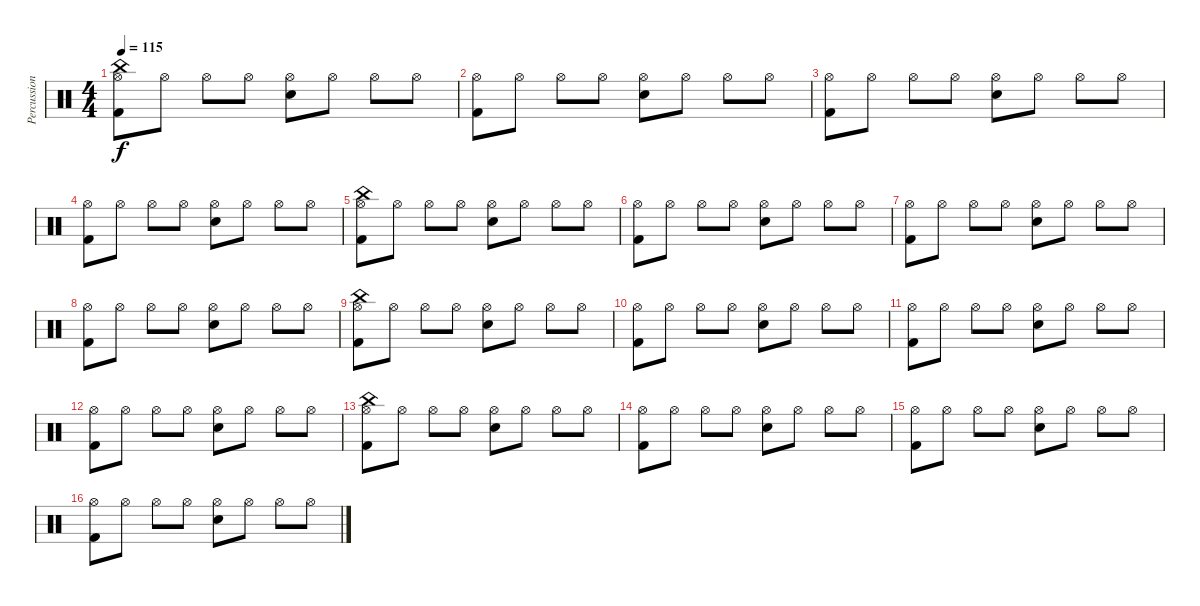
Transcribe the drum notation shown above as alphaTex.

\track ("Percussion" "Percussion") {instrument percussion}
\staff {score}
\articulation defaults
\ts (4 4)
\tempo 115
\clef neutral
\ks c
("China (hit)" "Hi-Hat (open)" "Kick (hit) 2").8{dy f} "Hi-Hat (open)".8 "Hi-Hat (open)".8 "Hi-Hat (open)".8 ("Hi-Hat (open)" "Snare (hit) 2").8 "Hi-Hat (open)".8 "Hi-Hat (open)".8 "Hi-Hat (open)".8 |
("Hi-Hat (open)" "Kick (hit) 2").8 "Hi-Hat (open)".8 "Hi-Hat (open)".8 "Hi-Hat (open)".8 ("Hi-Hat (open)" "Snare (hit) 2").8 "Hi-Hat (open)".8 "Hi-Hat (open)".8 "Hi-Hat (open)".8 |
("Hi-Hat (open)" "Kick (hit) 2").8 "Hi-Hat (open)".8 "Hi-Hat (open)".8 "Hi-Hat (open)".8 ("Hi-Hat (open)" "Snare (hit) 2").8 "Hi-Hat (open)".8 "Hi-Hat (open)".8 "Hi-Hat (open)".8 |
("Hi-Hat (open)" "Kick (hit) 2").8 "Hi-Hat (open)".8 "Hi-Hat (open)".8 "Hi-Hat (open)".8 ("Hi-Hat (open)" "Snare (hit) 2").8 "Hi-Hat (open)".8 "Hi-Hat (open)".8 "Hi-Hat (open)".8 |
("China (hit)" "Hi-Hat (open)" "Kick (hit) 2").8 "Hi-Hat (open)".8 "Hi-Hat (open)".8 "Hi-Hat (open)".8 ("Hi-Hat (open)" "Snare (hit) 2").8 "Hi-Hat (open)".8 "Hi-Hat (open)".8 "Hi-Hat (open)".8 |
("Hi-Hat (open)" "Kick (hit) 2").8 "Hi-Hat (open)".8 "Hi-Hat (open)".8 "Hi-Hat (open)".8 ("Hi-Hat (open)" "Snare (hit) 2").8 "Hi-Hat (open)".8 "Hi-Hat (open)".8 "Hi-Hat (open)".8 |
("Hi-Hat (open)" "Kick (hit) 2").8 "Hi-Hat (open)".8 "Hi-Hat (open)".8 "Hi-Hat (open)".8 ("Hi-Hat (open)" "Snare (hit) 2").8 "Hi-Hat (open)".8 "Hi-Hat (open)".8 "Hi-Hat (open)".8 |
("Hi-Hat (open)" "Kick (hit) 2").8 "Hi-Hat (open)".8 "Hi-Hat (open)".8 "Hi-Hat (open)".8 ("Hi-Hat (open)" "Snare (hit) 2").8 "Hi-Hat (open)".8 "Hi-Hat (open)".8 "Hi-Hat (open)".8 |
("China (hit)" "Hi-Hat (open)" "Kick (hit) 2").8 "Hi-Hat (open)".8 "Hi-Hat (open)".8 "Hi-Hat (open)".8 ("Hi-Hat (open)" "Snare (hit) 2").8 "Hi-Hat (open)".8 "Hi-Hat (open)".8 "Hi-Hat (open)".8 |
("Hi-Hat (open)" "Kick (hit) 2").8 "Hi-Hat (open)".8 "Hi-Hat (open)".8 "Hi-Hat (open)".8 ("Hi-Hat (open)" "Snare (hit) 2").8 "Hi-Hat (open)".8 "Hi-Hat (open)".8 "Hi-Hat (open)".8 |
("Hi-Hat (open)" "Kick (hit) 2").8 "Hi-Hat (open)".8 "Hi-Hat (open)".8 "Hi-Hat (open)".8 ("Hi-Hat (open)" "Snare (hit) 2").8 "Hi-Hat (open)".8 "Hi-Hat (open)".8 "Hi-Hat (open)".8 |
("Hi-Hat (open)" "Kick (hit) 2").8 "Hi-Hat (open)".8 "Hi-Hat (open)".8 "Hi-Hat (open)".8 ("Hi-Hat (open)" "Snare (hit) 2").8 "Hi-Hat (open)".8 "Hi-Hat (open)".8 "Hi-Hat (open)".8 |
("China (hit)" "Hi-Hat (open)" "Kick (hit) 2").8 "Hi-Hat (open)".8 "Hi-Hat (open)".8 "Hi-Hat (open)".8 ("Hi-Hat (open)" "Snare (hit) 2").8 "Hi-Hat (open)".8 "Hi-Hat (open)".8 "Hi-Hat (open)".8 |
("Hi-Hat (open)" "Kick (hit) 2").8 "Hi-Hat (open)".8 "Hi-Hat (open)".8 "Hi-Hat (open)".8 ("Hi-Hat (open)" "Snare (hit) 2").8 "Hi-Hat (open)".8 "Hi-Hat (open)".8 "Hi-Hat (open)".8 |
("Hi-Hat (open)" "Kick (hit) 2").8 "Hi-Hat (open)".8 "Hi-Hat (open)".8 "Hi-Hat (open)".8 ("Hi-Hat (open)" "Snare (hit) 2").8 "Hi-Hat (open)".8 "Hi-Hat (open)".8 "Hi-Hat (open)".8 |
("Hi-Hat (open)" "Kick (hit) 2").8 "Hi-Hat (open)".8 "Hi-Hat (open)".8 "Hi-Hat (open)".8 ("Hi-Hat (open)" "Snare (hit) 2").8 "Hi-Hat (open)".8 "Hi-Hat (open)".8 "Hi-Hat (open)".8
